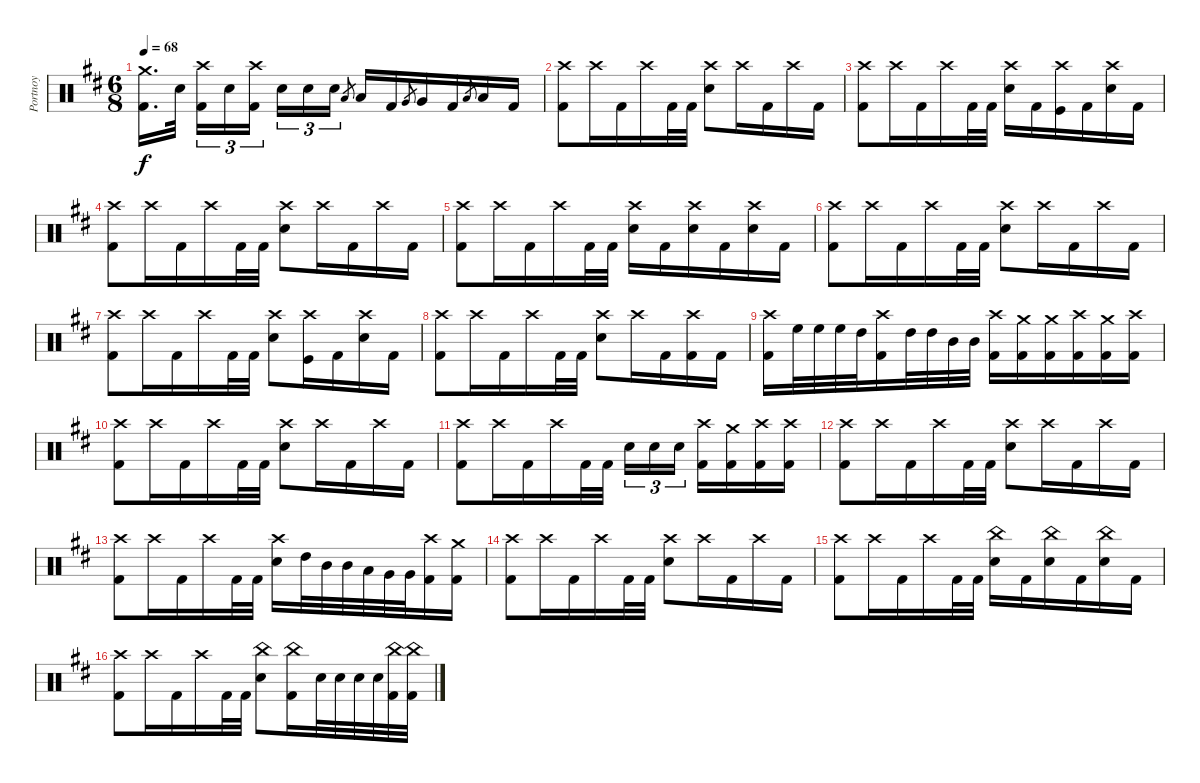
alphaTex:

\track ("Portnoy" "Portnoy") {instrument percussion}
\staff {score}
\articulation defaults
\ts (6 8)
\tempo 68
\clef neutral
\ks d
("Kick (hit) 2" "Crash medium (hit)").16{d dy f} "Snare (hit) 2".32{beam splitsecondary} ("Crash high (hit)" "Kick (hit) 2").16{tu (3 2)} "Snare (hit) 2".16{tu (3 2)} ("Crash high (hit)" "Kick (hit) 2").16{tu (3 2) beam splitsecondary} "Snare (hit) 2".16{tu (3 2)} "Snare (hit) 2".16{tu (3 2)} "Snare (hit) 2".16{tu (3 2)} "Low Tom (hit)".8{gr} "Low Tom (hit)".16 "Kick (hit) 2".16 "Very Low Tom (hit)".8{gr} "Very Low Tom (hit)".16 "Kick (hit) 2".16 "Low Floor Tom (hit)".8{gr} "Low Floor Tom (hit)".16 "Kick (hit) 2".16 |
("Crash high (hit)" "Kick (hit) 2").8 "Crash high (hit)".16 "Kick (hit) 2".16 "Crash high (hit)".16 "Kick (hit) 2".32 "Kick (hit) 2".32 ("Crash high (hit)" "Snare (hit) 2").8 "Crash high (hit)".16 "Kick (hit) 2".16 "Crash high (hit)".16 "Kick (hit) 2".16 |
("Crash high (hit)" "Kick (hit) 2").8 "Crash high (hit)".16 "Kick (hit) 2".16 "Crash high (hit)".16 "Kick (hit) 2".32 "Kick (hit) 2".32 ("Crash high (hit)" "Snare (hit) 2").16 "Kick (hit) 2".16 ("Crash high (hit)" "Kick (hit)").16 "Kick (hit) 2".16 ("Crash high (hit)" "Snare (hit) 2").16 "Kick (hit) 2".16 |
("Crash high (hit)" "Kick (hit) 2").8 "Crash high (hit)".16 "Kick (hit) 2".16 "Crash high (hit)".16 "Kick (hit) 2".32 "Kick (hit) 2".32 ("Crash high (hit)" "Snare (hit) 2").8 "Crash high (hit)".16 "Kick (hit) 2".16 "Crash high (hit)".16 "Kick (hit) 2".16 |
("Crash high (hit)" "Kick (hit) 2").8 "Crash high (hit)".16 "Kick (hit) 2".16 "Crash high (hit)".16 "Kick (hit) 2".32 "Kick (hit) 2".32 ("Crash high (hit)" "Snare (hit) 2").16 "Kick (hit) 2".16 ("Crash high (hit)" "Snare (hit) 2").16 "Kick (hit) 2".16 ("Crash high (hit)" "Snare (hit) 2").16 "Kick (hit) 2".16 |
("Crash high (hit)" "Kick (hit) 2").8 "Crash high (hit)".16 "Kick (hit) 2".16 "Crash high (hit)".16 "Kick (hit) 2".32 "Kick (hit) 2".32 ("Crash high (hit)" "Snare (hit) 2").8 "Crash high (hit)".16 "Kick (hit) 2".16 "Crash high (hit)".16 "Kick (hit) 2".16 |
("Crash high (hit)" "Kick (hit) 2").8 "Crash high (hit)".16 "Kick (hit) 2".16 "Crash high (hit)".16 "Kick (hit) 2".32 "Kick (hit) 2".32 ("Crash high (hit)" "Snare (hit) 2").8 ("Crash high (hit)" "Kick (hit)").16 "Kick (hit) 2".16 ("Crash high (hit)" "Snare (hit) 2").16 "Kick (hit) 2".16 |
("Crash high (hit)" "Kick (hit) 2").8 "Crash high (hit)".16 "Kick (hit) 2".16 "Crash high (hit)".16 "Kick (hit) 2".32 "Kick (hit) 2".32 ("Crash high (hit)" "Snare (hit) 2").8 "Crash high (hit)".16 "Kick (hit) 2".16 ("Crash high (hit)" "Kick (hit) 2").16 "Kick (hit) 2".16 |
("Crash high (hit)" "Kick (hit) 2").16 "High Floor Tom (hit)".32 "High Floor Tom (hit)".32 "High Floor Tom (hit)".32 "High Tom (hit)".32 ("Crash high (hit)" "Kick (hit) 2").16 "High Tom (hit)".32 "High Tom (hit)".32 "Mid Tom (hit)".32 "Mid Tom (hit)".32 ("Kick (hit) 2" "Crash high (hit)").16 ("Kick (hit) 2" "Crash medium (hit)").16 ("Kick (hit) 2" "Crash medium (hit)").16 ("Kick (hit) 2" "Crash high (hit)").16 ("Kick (hit) 2" "Crash medium (hit)").16 ("Kick (hit) 2" "Crash high (hit)").16 |
("Crash high (hit)" "Kick (hit) 2").8 "Crash high (hit)".16 "Kick (hit) 2".16 "Crash high (hit)".16 "Kick (hit) 2".32 "Kick (hit) 2".32 ("Crash high (hit)" "Snare (hit) 2").8 "Crash high (hit)".16 "Kick (hit) 2".16 "Crash high (hit)".16 "Kick (hit) 2".16 |
("Crash high (hit)" "Kick (hit) 2").8 "Crash high (hit)".16 "Kick (hit) 2".16 "Crash high (hit)".16 "Kick (hit) 2".32 "Kick (hit) 2".32 "Snare (hit) 2".16{tu (3 2)} "Snare (hit) 2".16{tu (3 2)} "Snare (hit) 2".16{tu (3 2) beam splitsecondary} ("Crash high (hit)" "Kick (hit) 2").16 ("Kick (hit) 2" "Crash medium (hit)").16 ("Kick (hit) 2" "Crash high (hit)").16 ("Kick (hit) 2" "Crash high (hit)").16 |
("Crash high (hit)" "Kick (hit) 2").8 "Crash high (hit)".16 "Kick (hit) 2".16 "Crash high (hit)".16 "Kick (hit) 2".32 "Kick (hit) 2".32 ("Crash high (hit)" "Snare (hit) 2").8 "Crash high (hit)".16 "Kick (hit) 2".16 "Crash high (hit)".16 "Kick (hit) 2".16 |
("Crash high (hit)" "Kick (hit) 2").8 "Crash high (hit)".16 "Kick (hit) 2".16 "Crash high (hit)".16 "Kick (hit) 2".32 "Kick (hit) 2".32 ("Crash high (hit)" "Snare (hit) 2").16 "High Tom (hit)".32 "Mid Tom (hit)".32 "Mid Tom (hit)".32 "Low Tom (hit)".32 "Very Low Tom (hit)".32 "Very Low Tom (hit)".32 ("Crash high (hit)" "Kick (hit) 2").16 ("Crash medium (hit)" "Kick (hit) 2").16 |
("Crash high (hit)" "Kick (hit) 2").8 "Crash high (hit)".16 "Kick (hit) 2".16 "Crash high (hit)".16 "Kick (hit) 2".32 "Kick (hit) 2".32 ("Crash high (hit)" "Snare (hit) 2").8 "Crash high (hit)".16 "Kick (hit) 2".16 "Crash high (hit)".16 "Kick (hit) 2".16 |
("Crash high (hit)" "Kick (hit) 2").8 "Crash high (hit)".16 "Kick (hit) 2".16 "Crash high (hit)".16 "Kick (hit) 2".32 "Kick (hit) 2".32 ("China (hit)" "Snare (hit) 2").16 "Kick (hit) 2".16 ("China (hit)" "Snare (hit) 2").16 "Kick (hit) 2".16 ("China (hit)" "Snare (hit) 2").16 "Kick (hit) 2".16 |
("Crash high (hit)" "Kick (hit) 2").8 "Crash high (hit)".16 "Kick (hit) 2".16 "Crash high (hit)".16 "Kick (hit) 2".32 "Kick (hit) 2".32 ("China (hit)" "Snare (hit) 2").8 ("China (hit)" "Kick (hit) 2").16 "Snare (hit) 2".32 "Snare (hit) 2".32 "Snare (hit) 2".32 "Snare (hit) 2".32 ("China (hit)" "Kick (hit) 2").32 ("Kick (hit) 2" "China (hit)").32
